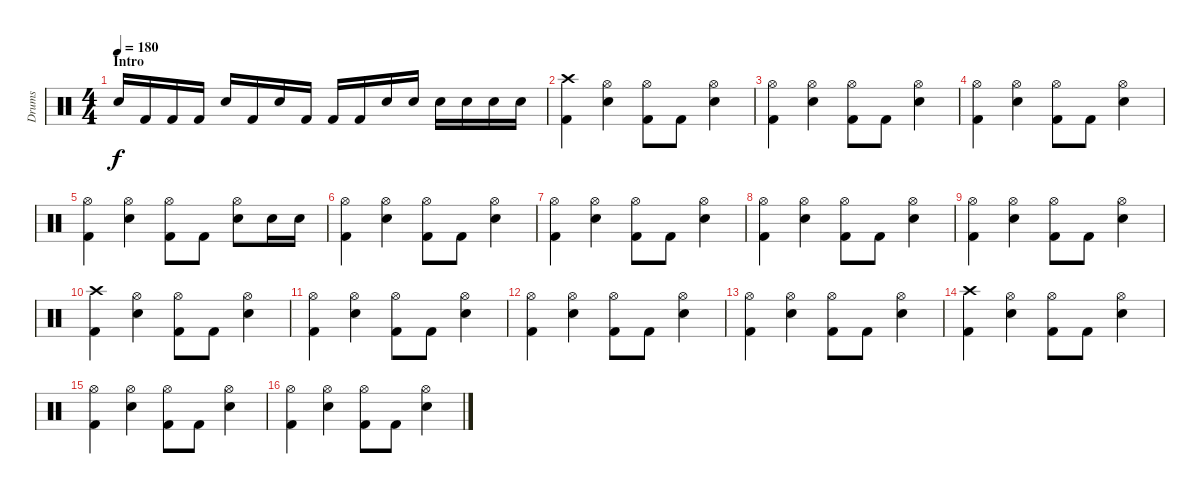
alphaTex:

\track ("Drums" "Drums") {instrument percussion}
\staff {score}
\articulation defaults
\ts (4 4)
\section ("" "Intro")
\tempo 180
\clef neutral
\ks c "Electric Snare (hit)".16{dy f} "Kick (hit) 2".16 "Kick (hit) 2".16 "Kick (hit) 2".16 "Electric Snare (hit)".16 "Kick (hit) 2".16 "Electric Snare (hit)".16 "Kick (hit) 2".16 "Kick (hit) 2".16 "Kick (hit) 2".16 "Electric Snare (hit)".16 "Electric Snare (hit)".16 "Electric Snare (hit)".16 "Electric Snare (hit)".16 "Electric Snare (hit)".16 "Electric Snare (hit)".16
|
("Crash high (hit)" "Kick (hit) 2").4 ("Hi-Hat (open)" "Electric Snare (hit)").4 ("Hi-Hat (open)" "Kick (hit) 2").8 "Kick (hit) 2".8 ("Hi-Hat (open)" "Electric Snare (hit)").4 |
("Hi-Hat (open)" "Kick (hit) 2").4 ("Hi-Hat (open)" "Electric Snare (hit)").4 ("Hi-Hat (open)" "Kick (hit) 2").8 "Kick (hit) 2".8 ("Hi-Hat (open)" "Electric Snare (hit)").4 |
("Hi-Hat (open)" "Kick (hit) 2").4 ("Hi-Hat (open)" "Electric Snare (hit)").4 ("Hi-Hat (open)" "Kick (hit) 2").8 "Kick (hit) 2".8 ("Hi-Hat (open)" "Electric Snare (hit)").4 |
("Hi-Hat (open)" "Kick (hit) 2").4 ("Hi-Hat (open)" "Electric Snare (hit)").4 ("Hi-Hat (open)" "Kick (hit) 2").8 "Kick (hit) 2".8 ("Hi-Hat (open)" "Electric Snare (hit)").8 "Electric Snare (hit)".16 "Electric Snare (hit)".16 |
("Hi-Hat (open)" "Kick (hit) 2").4 ("Hi-Hat (open)" "Electric Snare (hit)").4 ("Hi-Hat (open)" "Kick (hit) 2").8 "Kick (hit) 2".8 ("Hi-Hat (open)" "Electric Snare (hit)").4 |
("Hi-Hat (open)" "Kick (hit) 2").4 ("Hi-Hat (open)" "Electric Snare (hit)").4 ("Hi-Hat (open)" "Kick (hit) 2").8 "Kick (hit) 2".8 ("Hi-Hat (open)" "Electric Snare (hit)").4 |
("Hi-Hat (open)" "Kick (hit) 2").4 ("Hi-Hat (open)" "Electric Snare (hit)").4 ("Hi-Hat (open)" "Kick (hit) 2").8 "Kick (hit) 2".8 ("Hi-Hat (open)" "Electric Snare (hit)").4 |
("Hi-Hat (open)" "Kick (hit) 2").4 ("Hi-Hat (open)" "Electric Snare (hit)").4 ("Hi-Hat (open)" "Kick (hit) 2").8 "Kick (hit) 2".8 ("Hi-Hat (open)" "Electric Snare (hit)").4 |
("Crash high (hit)" "Kick (hit) 2").4 ("Hi-Hat (open)" "Electric Snare (hit)").4 ("Hi-Hat (open)" "Kick (hit) 2").8 "Kick (hit) 2".8 ("Hi-Hat (open)" "Electric Snare (hit)").4 |
("Hi-Hat (open)" "Kick (hit) 2").4 ("Hi-Hat (open)" "Electric Snare (hit)").4 ("Hi-Hat (open)" "Kick (hit) 2").8 "Kick (hit) 2".8 ("Hi-Hat (open)" "Electric Snare (hit)").4 |
("Hi-Hat (open)" "Kick (hit) 2").4 ("Hi-Hat (open)" "Electric Snare (hit)").4 ("Hi-Hat (open)" "Kick (hit) 2").8 "Kick (hit) 2".8 ("Hi-Hat (open)" "Electric Snare (hit)").4 |
("Hi-Hat (open)" "Kick (hit) 2").4 ("Hi-Hat (open)" "Electric Snare (hit)").4 ("Hi-Hat (open)" "Kick (hit) 2").8 "Kick (hit) 2".8 ("Hi-Hat (open)" "Electric Snare (hit)").4 |
("Crash high (hit)" "Kick (hit) 2").4 ("Hi-Hat (open)" "Electric Snare (hit)").4 ("Hi-Hat (open)" "Kick (hit) 2").8 "Kick (hit) 2".8 ("Hi-Hat (open)" "Electric Snare (hit)").4 |
("Hi-Hat (open)" "Kick (hit) 2").4 ("Hi-Hat (open)" "Electric Snare (hit)").4 ("Hi-Hat (open)" "Kick (hit) 2").8 "Kick (hit) 2".8 ("Hi-Hat (open)" "Electric Snare (hit)").4 |
("Hi-Hat (open)" "Kick (hit) 2").4 ("Hi-Hat (open)" "Electric Snare (hit)").4 ("Hi-Hat (open)" "Kick (hit) 2").8 "Kick (hit) 2".8 ("Hi-Hat (open)" "Electric Snare (hit)").4
